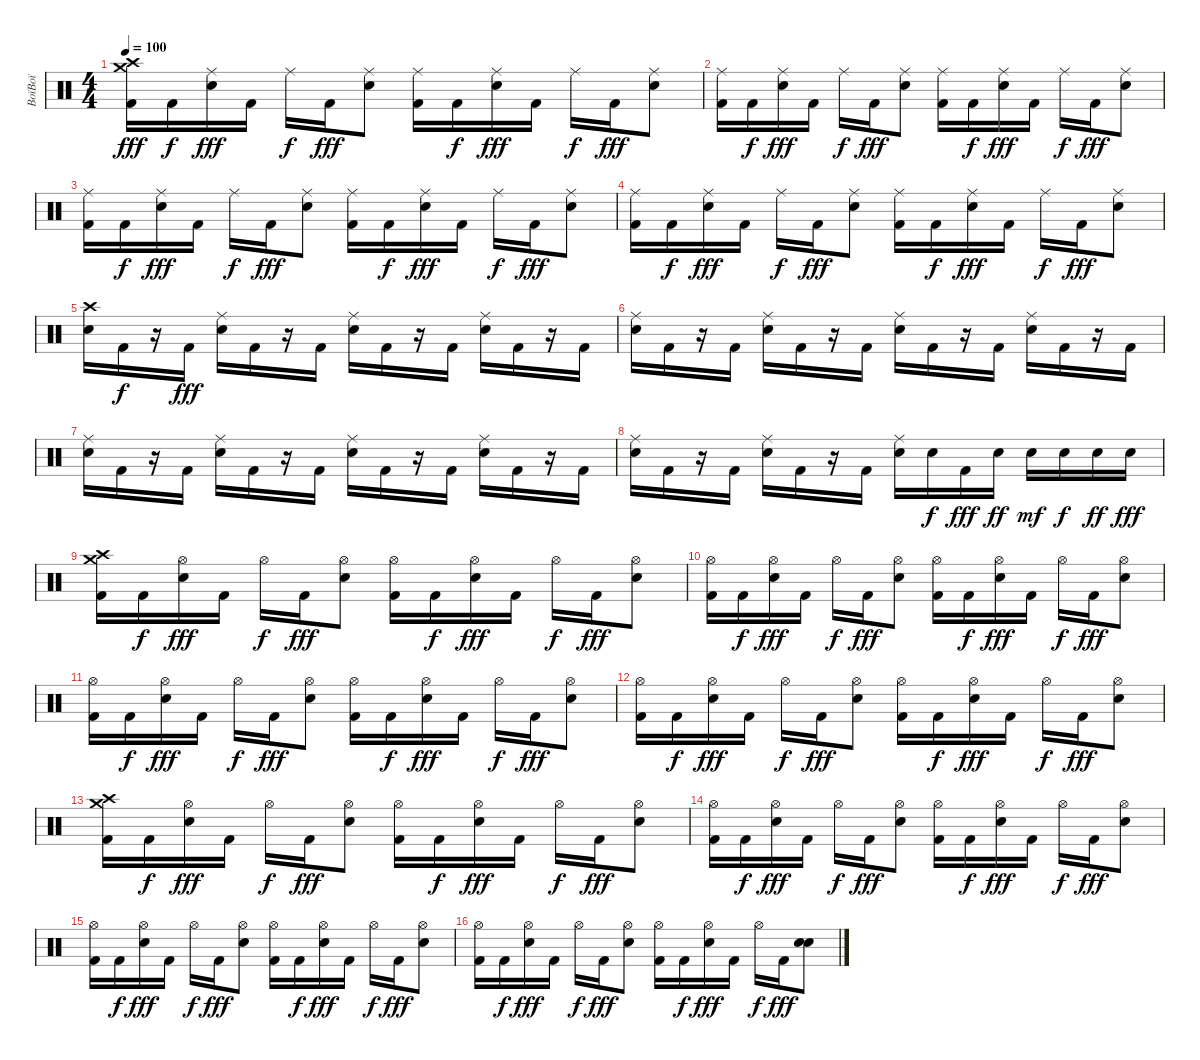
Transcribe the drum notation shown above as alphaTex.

\track ("BoïBoï" "BoïBoï") {instrument percussion}
\staff {score}
\articulation defaults
\ts (4 4)
\tempo 100
\clef neutral
\ks c
("Crash medium (hit)" "Crash high (hit)" "Kick (hit) 2").16{dy fff} "Kick (hit) 2".16{dy f} ("Ride (middle)" "Electric Snare (hit)").16{dy fff} "Kick (hit) 2".16 "Ride (middle)".16{dy f} "Kick (hit) 2".16{dy fff} ("Ride (middle)" "Electric Snare (hit)").8 ("Ride (middle)" "Kick (hit) 2").16 "Kick (hit) 2".16{dy f} ("Ride (middle)" "Electric Snare (hit)").16{dy fff} "Kick (hit) 2".16 "Ride (middle)".16{dy f} "Kick (hit) 2".16{dy fff} ("Ride (middle)" "Electric Snare (hit)").8 |
("Ride (middle)" "Kick (hit) 2").16 "Kick (hit) 2".16{dy f} ("Ride (middle)" "Electric Snare (hit)").16{dy fff} "Kick (hit) 2".16 "Ride (middle)".16{dy f} "Kick (hit) 2".16{dy fff} ("Ride (middle)" "Electric Snare (hit)").8 ("Ride (middle)" "Kick (hit) 2").16 "Kick (hit) 2".16{dy f} ("Ride (middle)" "Electric Snare (hit)").16{dy fff} "Kick (hit) 2".16 "Ride (middle)".16{dy f} "Kick (hit) 2".16{dy fff} ("Ride (middle)" "Electric Snare (hit)").8 |
("Ride (middle)" "Kick (hit) 2").16 "Kick (hit) 2".16{dy f} ("Ride (middle)" "Electric Snare (hit)").16{dy fff} "Kick (hit) 2".16 "Ride (middle)".16{dy f} "Kick (hit) 2".16{dy fff} ("Ride (middle)" "Electric Snare (hit)").8 ("Ride (middle)" "Kick (hit) 2").16 "Kick (hit) 2".16{dy f} ("Ride (middle)" "Electric Snare (hit)").16{dy fff} "Kick (hit) 2".16 "Ride (middle)".16{dy f} "Kick (hit) 2".16{dy fff} ("Ride (middle)" "Electric Snare (hit)").8 |
("Ride (middle)" "Kick (hit) 2").16 "Kick (hit) 2".16{dy f} ("Ride (middle)" "Electric Snare (hit)").16{dy fff} "Kick (hit) 2".16 "Ride (middle)".16{dy f} "Kick (hit) 2".16{dy fff} ("Ride (middle)" "Electric Snare (hit)").8 ("Ride (middle)" "Kick (hit) 2").16 "Kick (hit) 2".16{dy f} ("Ride (middle)" "Electric Snare (hit)").16{dy fff} "Kick (hit) 2".16 "Ride (middle)".16{dy f} "Kick (hit) 2".16{dy fff} ("Ride (middle)" "Electric Snare (hit)").8 |
("Crash high (hit)" "Electric Snare (hit)").16 "Kick (hit) 2".16{dy f} r.16 "Kick (hit) 2".16{dy fff} ("Ride (middle)" "Electric Snare (hit)").16 "Kick (hit) 2".16 r.16 "Kick (hit) 2".16 ("Ride (middle)" "Electric Snare (hit)").16 "Kick (hit) 2".16 r.16 "Kick (hit) 2".16 ("Ride (middle)" "Electric Snare (hit)").16 "Kick (hit) 2".16 r.16 "Kick (hit) 2".16 |
("Ride (middle)" "Electric Snare (hit)").16 "Kick (hit) 2".16 r.16 "Kick (hit) 2".16 ("Ride (middle)" "Electric Snare (hit)").16 "Kick (hit) 2".16 r.16 "Kick (hit) 2".16 ("Ride (middle)" "Electric Snare (hit)").16 "Kick (hit) 2".16 r.16 "Kick (hit) 2".16 ("Ride (middle)" "Electric Snare (hit)").16 "Kick (hit) 2".16 r.16 "Kick (hit) 2".16 |
("Ride (middle)" "Electric Snare (hit)").16 "Kick (hit) 2".16 r.16 "Kick (hit) 2".16 ("Ride (middle)" "Electric Snare (hit)").16 "Kick (hit) 2".16 r.16 "Kick (hit) 2".16 ("Ride (middle)" "Electric Snare (hit)").16 "Kick (hit) 2".16 r.16 "Kick (hit) 2".16 ("Ride (middle)" "Electric Snare (hit)").16 "Kick (hit) 2".16 r.16 "Kick (hit) 2".16 |
("Ride (middle)" "Electric Snare (hit)").16 "Kick (hit) 2".16 r.16 "Kick (hit) 2".16 ("Ride (middle)" "Electric Snare (hit)").16 "Kick (hit) 2".16 r.16 "Kick (hit) 2".16 ("Ride (middle)" "Electric Snare (hit)").16 "Electric Snare (hit)".16{dy f} "Kick (hit) 2".16{dy fff} "Electric Snare (hit)".16{dy ff} "Electric Snare (hit)".16{dy mf} "Electric Snare (hit)".16{dy f} "Electric Snare (hit)".16{dy ff} "Electric Snare (hit)".16{dy fff} |
("Crash medium (hit)" "Crash high (hit)" "Kick (hit) 2").16 "Kick (hit) 2".16{dy f} ("Hi-Hat (open)" "Electric Snare (hit)").16{dy fff} "Kick (hit) 2".16 "Hi-Hat (open)".16{dy f} "Kick (hit) 2".16{dy fff} ("Hi-Hat (open)" "Electric Snare (hit)").8 ("Hi-Hat (open)" "Kick (hit) 2").16 "Kick (hit) 2".16{dy f} ("Hi-Hat (open)" "Electric Snare (hit)").16{dy fff} "Kick (hit) 2".16 "Hi-Hat (open)".16{dy f} "Kick (hit) 2".16{dy fff} ("Hi-Hat (open)" "Electric Snare (hit)").8 |
("Hi-Hat (open)" "Kick (hit) 2").16 "Kick (hit) 2".16{dy f} ("Hi-Hat (open)" "Electric Snare (hit)").16{dy fff} "Kick (hit) 2".16 "Hi-Hat (open)".16{dy f} "Kick (hit) 2".16{dy fff} ("Hi-Hat (open)" "Electric Snare (hit)").8 ("Hi-Hat (open)" "Kick (hit) 2").16 "Kick (hit) 2".16{dy f} ("Hi-Hat (open)" "Electric Snare (hit)").16{dy fff} "Kick (hit) 2".16 "Hi-Hat (open)".16{dy f} "Kick (hit) 2".16{dy fff} ("Hi-Hat (open)" "Electric Snare (hit)").8 |
("Hi-Hat (open)" "Kick (hit) 2").16 "Kick (hit) 2".16{dy f} ("Hi-Hat (open)" "Electric Snare (hit)").16{dy fff} "Kick (hit) 2".16 "Hi-Hat (open)".16{dy f} "Kick (hit) 2".16{dy fff} ("Hi-Hat (open)" "Electric Snare (hit)").8 ("Hi-Hat (open)" "Kick (hit) 2").16 "Kick (hit) 2".16{dy f} ("Hi-Hat (open)" "Electric Snare (hit)").16{dy fff} "Kick (hit) 2".16 "Hi-Hat (open)".16{dy f} "Kick (hit) 2".16{dy fff} ("Hi-Hat (open)" "Electric Snare (hit)").8 |
("Hi-Hat (open)" "Kick (hit) 2").16 "Kick (hit) 2".16{dy f} ("Hi-Hat (open)" "Electric Snare (hit)").16{dy fff} "Kick (hit) 2".16 "Hi-Hat (open)".16{dy f} "Kick (hit) 2".16{dy fff} ("Hi-Hat (open)" "Electric Snare (hit)").8 ("Hi-Hat (open)" "Kick (hit) 2").16 "Kick (hit) 2".16{dy f} ("Hi-Hat (open)" "Electric Snare (hit)").16{dy fff} "Kick (hit) 2".16 "Hi-Hat (open)".16{dy f} "Kick (hit) 2".16{dy fff} ("Hi-Hat (open)" "Electric Snare (hit)").8 |
("Crash medium (hit)" "Crash high (hit)" "Kick (hit) 2").16 "Kick (hit) 2".16{dy f} ("Hi-Hat (open)" "Electric Snare (hit)").16{dy fff} "Kick (hit) 2".16 "Hi-Hat (open)".16{dy f} "Kick (hit) 2".16{dy fff} ("Hi-Hat (open)" "Electric Snare (hit)").8 ("Hi-Hat (open)" "Kick (hit) 2").16 "Kick (hit) 2".16{dy f} ("Hi-Hat (open)" "Electric Snare (hit)").16{dy fff} "Kick (hit) 2".16 "Hi-Hat (open)".16{dy f} "Kick (hit) 2".16{dy fff} ("Hi-Hat (open)" "Electric Snare (hit)").8 |
("Hi-Hat (open)" "Kick (hit) 2").16 "Kick (hit) 2".16{dy f} ("Hi-Hat (open)" "Electric Snare (hit)").16{dy fff} "Kick (hit) 2".16 "Hi-Hat (open)".16{dy f} "Kick (hit) 2".16{dy fff} ("Hi-Hat (open)" "Electric Snare (hit)").8 ("Hi-Hat (open)" "Kick (hit) 2").16 "Kick (hit) 2".16{dy f} ("Hi-Hat (open)" "Electric Snare (hit)").16{dy fff} "Kick (hit) 2".16 "Hi-Hat (open)".16{dy f} "Kick (hit) 2".16{dy fff} ("Hi-Hat (open)" "Electric Snare (hit)").8 |
("Hi-Hat (open)" "Kick (hit) 2").16 "Kick (hit) 2".16{dy f} ("Hi-Hat (open)" "Electric Snare (hit)").16{dy fff} "Kick (hit) 2".16 "Hi-Hat (open)".16{dy f} "Kick (hit) 2".16{dy fff} ("Hi-Hat (open)" "Electric Snare (hit)").8 ("Hi-Hat (open)" "Kick (hit) 2").16 "Kick (hit) 2".16{dy f} ("Hi-Hat (open)" "Electric Snare (hit)").16{dy fff} "Kick (hit) 2".16 "Hi-Hat (open)".16{dy f} "Kick (hit) 2".16{dy fff} ("Hi-Hat (open)" "Electric Snare (hit)").8 |
("Hi-Hat (open)" "Kick (hit) 2").16 "Kick (hit) 2".16{dy f} ("Hi-Hat (open)" "Electric Snare (hit)").16{dy fff} "Kick (hit) 2".16 "Hi-Hat (open)".16{dy f} "Kick (hit) 2".16{dy fff} ("Hi-Hat (open)" "Electric Snare (hit)").8 ("Hi-Hat (open)" "Kick (hit) 2").16 "Kick (hit) 2".16{dy f} ("Hi-Hat (open)" "Electric Snare (hit)").16{dy fff} "Kick (hit) 2".16 "Hi-Hat (open)".16{dy f} "Kick (hit) 2".16{dy fff} ("Electric Snare (hit)" "Snare (hit) 2").8
